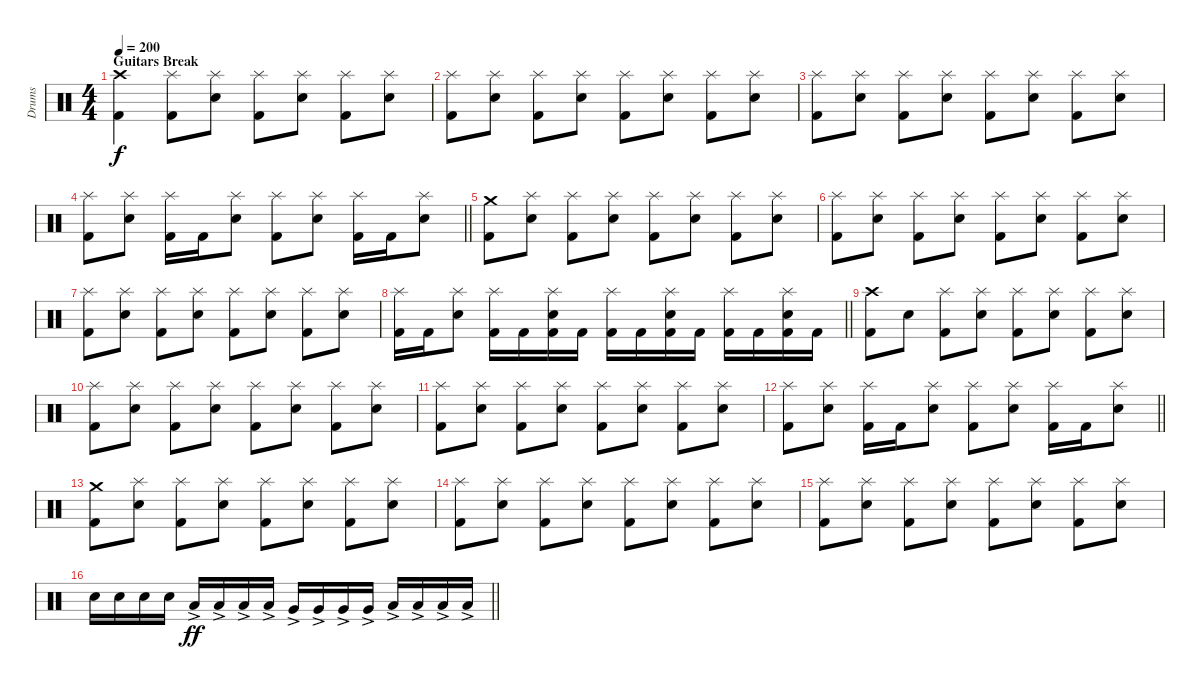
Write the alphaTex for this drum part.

\track ("Drums" "Drums") {instrument percussion}
\staff {score}
\articulation defaults
\ts (4 4)
\section ("" "Guitars Break")
\tempo 200
\clef neutral
\ks c
("Kick (hit) 2" "Crash high (hit)").4{dy f} ("Kick (hit) 2" "Splash (hit)").8 ("Snare (hit) 2" "Splash (hit)").8 ("Kick (hit) 2" "Splash (hit)").8 ("Snare (hit) 2" "Splash (hit)").8 ("Kick (hit) 2" "Splash (hit)").8 ("Snare (hit) 2" "Splash (hit)").8 |
("Kick (hit) 2" "Splash (hit)").8 ("Snare (hit) 2" "Splash (hit)").8 ("Kick (hit) 2" "Splash (hit)").8 ("Snare (hit) 2" "Splash (hit)").8 ("Kick (hit) 2" "Splash (hit)").8 ("Snare (hit) 2" "Splash (hit)").8 ("Kick (hit) 2" "Splash (hit)").8 ("Snare (hit) 2" "Splash (hit)").8 |
("Kick (hit) 2" "Splash (hit)").8 ("Snare (hit) 2" "Splash (hit)").8 ("Kick (hit) 2" "Splash (hit)").8 ("Snare (hit) 2" "Splash (hit)").8 ("Kick (hit) 2" "Splash (hit)").8 ("Snare (hit) 2" "Splash (hit)").8 ("Kick (hit) 2" "Splash (hit)").8 ("Snare (hit) 2" "Splash (hit)").8 |
\barLineRight lightlight
("Kick (hit) 2" "Splash (hit)").8 ("Snare (hit) 2" "Splash (hit)").8 ("Kick (hit) 2" "Splash (hit)").16 "Kick (hit) 2".16 ("Snare (hit) 2" "Splash (hit)").8 ("Kick (hit) 2" "Splash (hit)").8 ("Snare (hit) 2" "Splash (hit)").8 ("Kick (hit) 2" "Splash (hit)").16 "Kick (hit) 2".16 ("Snare (hit) 2" "Splash (hit)").8 |
\section ("" "")
("Kick (hit) 2" "Crash medium (hit)").8 ("Snare (hit) 2" "Splash (hit)").8 ("Kick (hit) 2" "Splash (hit)").8 ("Snare (hit) 2" "Splash (hit)").8 ("Kick (hit) 2" "Splash (hit)").8 ("Snare (hit) 2" "Splash (hit)").8 ("Kick (hit) 2" "Splash (hit)").8 ("Snare (hit) 2" "Splash (hit)").8 |
("Kick (hit) 2" "Splash (hit)").8 ("Snare (hit) 2" "Splash (hit)").8 ("Kick (hit) 2" "Splash (hit)").8 ("Snare (hit) 2" "Splash (hit)").8 ("Kick (hit) 2" "Splash (hit)").8 ("Snare (hit) 2" "Splash (hit)").8 ("Kick (hit) 2" "Splash (hit)").8 ("Snare (hit) 2" "Splash (hit)").8 |
("Kick (hit) 2" "Splash (hit)").8 ("Snare (hit) 2" "Splash (hit)").8 ("Kick (hit) 2" "Splash (hit)").8 ("Snare (hit) 2" "Splash (hit)").8 ("Kick (hit) 2" "Splash (hit)").8 ("Snare (hit) 2" "Splash (hit)").8 ("Kick (hit) 2" "Splash (hit)").8 ("Snare (hit) 2" "Splash (hit)").8 |
\barLineRight lightlight
("Kick (hit) 2" "Splash (hit)").16 "Kick (hit) 2".16 ("Snare (hit) 2" "Splash (hit)").8 ("Kick (hit) 2" "Splash (hit)").16 "Kick (hit) 2".16 ("Kick (hit) 2" "Snare (hit) 2" "Splash (hit)").16 "Kick (hit) 2".16 ("Kick (hit) 2" "Splash (hit)").16 "Kick (hit) 2".16 ("Kick (hit) 2" "Snare (hit) 2" "Splash (hit)").16 "Kick (hit) 2".16 ("Kick (hit) 2" "Splash (hit)").16 "Kick (hit) 2".16 ("Kick (hit) 2" "Snare (hit) 2" "Splash (hit)").16 "Kick (hit) 2".16 |
\section ("" "")
("Kick (hit) 2" "Crash high (hit)").8 "Snare (hit) 2".8 ("Kick (hit) 2" "Splash (hit)").8 ("Snare (hit) 2" "Splash (hit)").8 ("Kick (hit) 2" "Splash (hit)").8 ("Snare (hit) 2" "Splash (hit)").8 ("Kick (hit) 2" "Splash (hit)").8 ("Snare (hit) 2" "Splash (hit)").8 |
("Kick (hit) 2" "Splash (hit)").8 ("Snare (hit) 2" "Splash (hit)").8 ("Kick (hit) 2" "Splash (hit)").8 ("Snare (hit) 2" "Splash (hit)").8 ("Kick (hit) 2" "Splash (hit)").8 ("Snare (hit) 2" "Splash (hit)").8 ("Kick (hit) 2" "Splash (hit)").8 ("Snare (hit) 2" "Splash (hit)").8 |
("Kick (hit) 2" "Splash (hit)").8 ("Snare (hit) 2" "Splash (hit)").8 ("Kick (hit) 2" "Splash (hit)").8 ("Snare (hit) 2" "Splash (hit)").8 ("Kick (hit) 2" "Splash (hit)").8 ("Snare (hit) 2" "Splash (hit)").8 ("Kick (hit) 2" "Splash (hit)").8 ("Snare (hit) 2" "Splash (hit)").8 |
\barLineRight lightlight
("Kick (hit) 2" "Splash (hit)").8 ("Snare (hit) 2" "Splash (hit)").8 ("Kick (hit) 2" "Splash (hit)").16 "Kick (hit) 2".16 ("Snare (hit) 2" "Splash (hit)").8 ("Kick (hit) 2" "Splash (hit)").8 ("Snare (hit) 2" "Splash (hit)").8 ("Kick (hit) 2" "Splash (hit)").16 "Kick (hit) 2".16 ("Snare (hit) 2" "Splash (hit)").8 |
\section ("" "")
("Kick (hit) 2" "Crash medium (hit)").8 ("Snare (hit) 2" "Splash (hit)").8 ("Kick (hit) 2" "Splash (hit)").8 ("Snare (hit) 2" "Splash (hit)").8 ("Kick (hit) 2" "Splash (hit)").8 ("Snare (hit) 2" "Splash (hit)").8 ("Kick (hit) 2" "Splash (hit)").8 ("Snare (hit) 2" "Splash (hit)").8 |
("Kick (hit) 2" "Splash (hit)").8 ("Snare (hit) 2" "Splash (hit)").8 ("Kick (hit) 2" "Splash (hit)").8 ("Snare (hit) 2" "Splash (hit)").8 ("Kick (hit) 2" "Splash (hit)").8 ("Snare (hit) 2" "Splash (hit)").8 ("Kick (hit) 2" "Splash (hit)").8 ("Snare (hit) 2" "Splash (hit)").8 |
("Kick (hit) 2" "Splash (hit)").8 ("Snare (hit) 2" "Splash (hit)").8 ("Kick (hit) 2" "Splash (hit)").8 ("Snare (hit) 2" "Splash (hit)").8 ("Kick (hit) 2" "Splash (hit)").8 ("Snare (hit) 2" "Splash (hit)").8 ("Kick (hit) 2" "Splash (hit)").8 ("Snare (hit) 2" "Splash (hit)").8 |
\barLineRight lightlight "Snare (hit) 2".16 "Snare (hit) 2".16 "Snare (hit) 2".16 "Snare (hit) 2".16 "Low Tom (hit)"{ac}.16{dy ff} "Low Tom (hit)"{ac}.16 "Low Tom (hit)"{ac}.16 "Low Tom (hit)"{ac}.16 "Very Low Tom (hit)"{ac}.16 "Very Low Tom (hit)"{ac}.16 "Very Low Tom (hit)"{ac}.16 "Very Low Tom (hit)"{ac}.16 "Low Floor Tom (hit)"{ac}.16 "Low Floor Tom (hit)"{ac}.16 "Low Floor Tom (hit)"{ac}.16 "Low Floor Tom (hit)"{ac}.16
